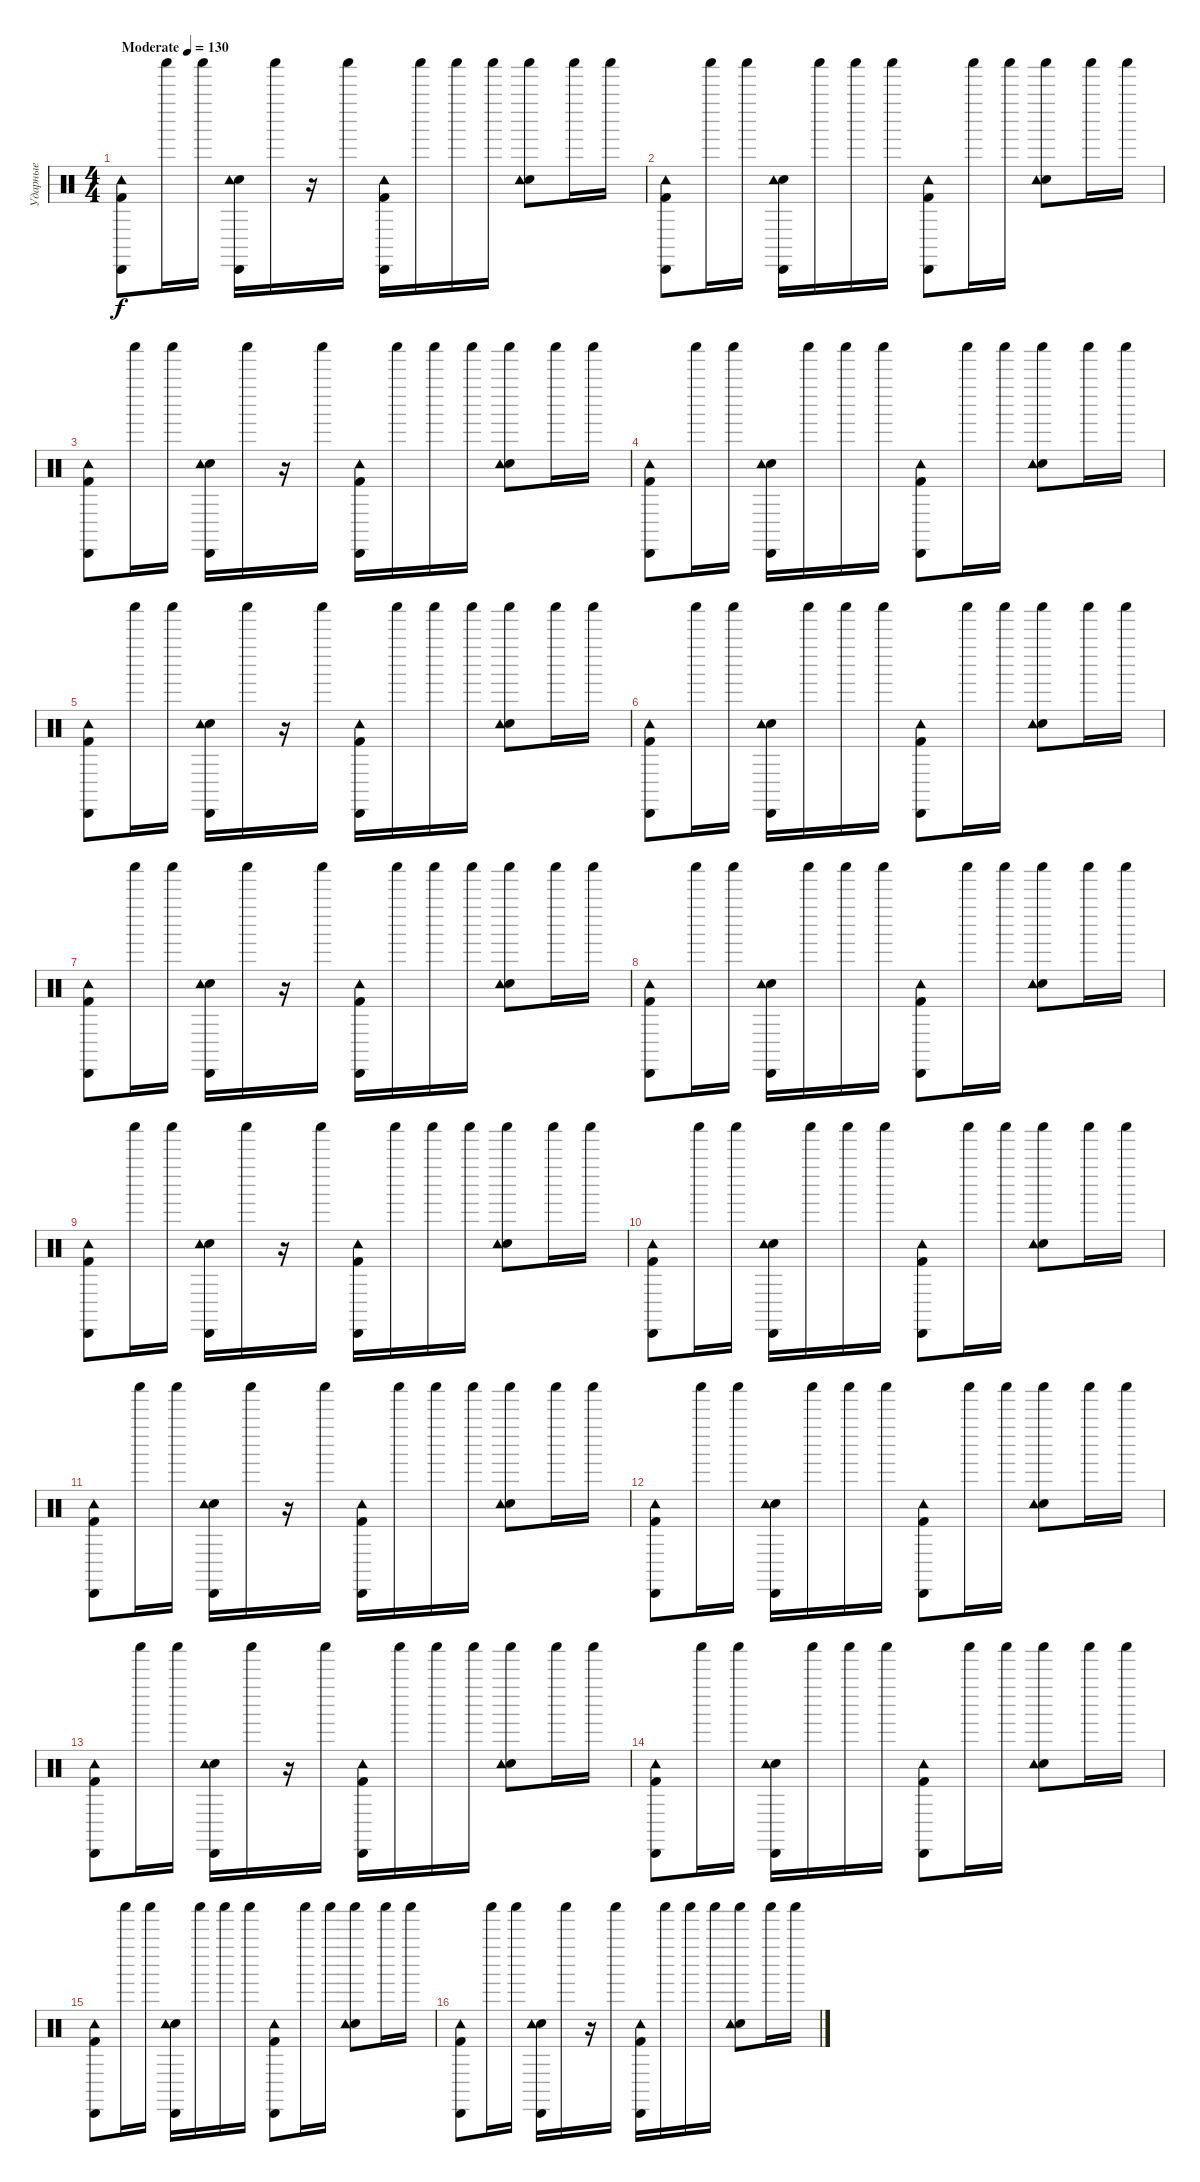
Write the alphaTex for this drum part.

\track ("Ударные" "Ударные") {instrument percussion}
\staff {score}
\articulation defaults
\ts (4 4)
\tempo (130 "Moderate")
\clef neutral
\ks c
("Kick (hit) 2" "Cabasa (hit)" "Tambourine (hit)").8{dy f} "Shaker (hit)".16 "Shaker (hit)".16 ("Electric Snare (hit)" "Cabasa (hit)" "Tambourine (hit)").16 "Shaker (hit)".16 r.16 "Shaker (hit)".16 ("Kick (hit) 2" "Cabasa (hit)" "Tambourine (hit)").16 "Shaker (hit)".16 "Shaker (hit)".16 "Shaker (hit)".16 ("Electric Snare (hit)" "Shaker (hit)" "Tambourine (hit)").8 "Shaker (hit)".16 "Shaker (hit)".16 |
("Kick (hit) 2" "Cabasa (hit)" "Tambourine (hit)").8 "Shaker (hit)".16 "Shaker (hit)".16 ("Electric Snare (hit)" "Cabasa (hit)" "Tambourine (hit)").16 "Shaker (hit)".16 "Shaker (hit)".16 "Shaker (hit)".16 ("Kick (hit) 2" "Cabasa (hit)" "Tambourine (hit)").8 "Shaker (hit)".16 "Shaker (hit)".16 ("Electric Snare (hit)" "Shaker (hit)" "Tambourine (hit)").8 "Shaker (hit)".16 "Shaker (hit)".16 |
("Kick (hit) 2" "Cabasa (hit)" "Tambourine (hit)").8 "Shaker (hit)".16 "Shaker (hit)".16 ("Electric Snare (hit)" "Cabasa (hit)" "Tambourine (hit)").16 "Shaker (hit)".16 r.16 "Shaker (hit)".16 ("Kick (hit) 2" "Cabasa (hit)" "Tambourine (hit)").16 "Shaker (hit)".16 "Shaker (hit)".16 "Shaker (hit)".16 ("Electric Snare (hit)" "Shaker (hit)" "Tambourine (hit)").8 "Shaker (hit)".16 "Shaker (hit)".16 |
("Kick (hit) 2" "Cabasa (hit)" "Tambourine (hit)").8 "Shaker (hit)".16 "Shaker (hit)".16 ("Electric Snare (hit)" "Cabasa (hit)" "Tambourine (hit)").16 "Shaker (hit)".16 "Shaker (hit)".16 "Shaker (hit)".16 ("Kick (hit) 2" "Cabasa (hit)" "Tambourine (hit)").8 "Shaker (hit)".16 "Shaker (hit)".16 ("Electric Snare (hit)" "Shaker (hit)" "Tambourine (hit)").8 "Shaker (hit)".16 "Shaker (hit)".16 |
("Kick (hit) 2" "Cabasa (hit)" "Tambourine (hit)").8 "Shaker (hit)".16 "Shaker (hit)".16 ("Electric Snare (hit)" "Cabasa (hit)" "Tambourine (hit)").16 "Shaker (hit)".16 r.16 "Shaker (hit)".16 ("Kick (hit) 2" "Cabasa (hit)" "Tambourine (hit)").16 "Shaker (hit)".16 "Shaker (hit)".16 "Shaker (hit)".16 ("Electric Snare (hit)" "Shaker (hit)" "Tambourine (hit)").8 "Shaker (hit)".16 "Shaker (hit)".16 |
("Kick (hit) 2" "Cabasa (hit)" "Tambourine (hit)").8 "Shaker (hit)".16 "Shaker (hit)".16 ("Electric Snare (hit)" "Cabasa (hit)" "Tambourine (hit)").16 "Shaker (hit)".16 "Shaker (hit)".16 "Shaker (hit)".16 ("Kick (hit) 2" "Cabasa (hit)" "Tambourine (hit)").8 "Shaker (hit)".16 "Shaker (hit)".16 ("Electric Snare (hit)" "Shaker (hit)" "Tambourine (hit)").8 "Shaker (hit)".16 "Shaker (hit)".16 |
("Kick (hit) 2" "Cabasa (hit)" "Tambourine (hit)").8 "Shaker (hit)".16 "Shaker (hit)".16 ("Electric Snare (hit)" "Cabasa (hit)" "Tambourine (hit)").16 "Shaker (hit)".16 r.16 "Shaker (hit)".16 ("Kick (hit) 2" "Cabasa (hit)" "Tambourine (hit)").16 "Shaker (hit)".16 "Shaker (hit)".16 "Shaker (hit)".16 ("Electric Snare (hit)" "Shaker (hit)" "Tambourine (hit)").8 "Shaker (hit)".16 "Shaker (hit)".16 |
("Kick (hit) 2" "Cabasa (hit)" "Tambourine (hit)").8 "Shaker (hit)".16 "Shaker (hit)".16 ("Electric Snare (hit)" "Cabasa (hit)" "Tambourine (hit)").16 "Shaker (hit)".16 "Shaker (hit)".16 "Shaker (hit)".16 ("Kick (hit) 2" "Cabasa (hit)" "Tambourine (hit)").8 "Shaker (hit)".16 "Shaker (hit)".16 ("Electric Snare (hit)" "Shaker (hit)" "Tambourine (hit)").8 "Shaker (hit)".16 "Shaker (hit)".16 |
("Kick (hit) 2" "Cabasa (hit)" "Tambourine (hit)").8 "Shaker (hit)".16 "Shaker (hit)".16 ("Electric Snare (hit)" "Cabasa (hit)" "Tambourine (hit)").16 "Shaker (hit)".16 r.16 "Shaker (hit)".16 ("Kick (hit) 2" "Cabasa (hit)" "Tambourine (hit)").16 "Shaker (hit)".16 "Shaker (hit)".16 "Shaker (hit)".16 ("Electric Snare (hit)" "Shaker (hit)" "Tambourine (hit)").8 "Shaker (hit)".16 "Shaker (hit)".16 |
("Kick (hit) 2" "Cabasa (hit)" "Tambourine (hit)").8 "Shaker (hit)".16 "Shaker (hit)".16 ("Electric Snare (hit)" "Cabasa (hit)" "Tambourine (hit)").16 "Shaker (hit)".16 "Shaker (hit)".16 "Shaker (hit)".16 ("Kick (hit) 2" "Cabasa (hit)" "Tambourine (hit)").8 "Shaker (hit)".16 "Shaker (hit)".16 ("Electric Snare (hit)" "Shaker (hit)" "Tambourine (hit)").8 "Shaker (hit)".16 "Shaker (hit)".16 |
("Kick (hit) 2" "Cabasa (hit)" "Tambourine (hit)").8 "Shaker (hit)".16 "Shaker (hit)".16 ("Electric Snare (hit)" "Cabasa (hit)" "Tambourine (hit)").16 "Shaker (hit)".16 r.16 "Shaker (hit)".16 ("Kick (hit) 2" "Cabasa (hit)" "Tambourine (hit)").16 "Shaker (hit)".16 "Shaker (hit)".16 "Shaker (hit)".16 ("Electric Snare (hit)" "Shaker (hit)" "Tambourine (hit)").8 "Shaker (hit)".16 "Shaker (hit)".16 |
("Kick (hit) 2" "Cabasa (hit)" "Tambourine (hit)").8 "Shaker (hit)".16 "Shaker (hit)".16 ("Electric Snare (hit)" "Cabasa (hit)" "Tambourine (hit)").16 "Shaker (hit)".16 "Shaker (hit)".16 "Shaker (hit)".16 ("Kick (hit) 2" "Cabasa (hit)" "Tambourine (hit)").8 "Shaker (hit)".16 "Shaker (hit)".16 ("Electric Snare (hit)" "Shaker (hit)" "Tambourine (hit)").8 "Shaker (hit)".16 "Shaker (hit)".16 |
("Kick (hit) 2" "Cabasa (hit)" "Tambourine (hit)").8 "Shaker (hit)".16 "Shaker (hit)".16 ("Electric Snare (hit)" "Cabasa (hit)" "Tambourine (hit)").16 "Shaker (hit)".16 r.16 "Shaker (hit)".16 ("Kick (hit) 2" "Cabasa (hit)" "Tambourine (hit)").16 "Shaker (hit)".16 "Shaker (hit)".16 "Shaker (hit)".16 ("Electric Snare (hit)" "Shaker (hit)" "Tambourine (hit)").8 "Shaker (hit)".16 "Shaker (hit)".16 |
("Kick (hit) 2" "Cabasa (hit)" "Tambourine (hit)").8 "Shaker (hit)".16 "Shaker (hit)".16 ("Electric Snare (hit)" "Cabasa (hit)" "Tambourine (hit)").16 "Shaker (hit)".16 "Shaker (hit)".16 "Shaker (hit)".16 ("Kick (hit) 2" "Cabasa (hit)" "Tambourine (hit)").8 "Shaker (hit)".16 "Shaker (hit)".16 ("Electric Snare (hit)" "Shaker (hit)" "Tambourine (hit)").8 "Shaker (hit)".16 "Shaker (hit)".16 |
("Kick (hit) 2" "Cabasa (hit)" "Tambourine (hit)").8 "Shaker (hit)".16 "Shaker (hit)".16 ("Electric Snare (hit)" "Cabasa (hit)" "Tambourine (hit)").16 "Shaker (hit)".16 "Shaker (hit)".16 "Shaker (hit)".16 ("Kick (hit) 2" "Cabasa (hit)" "Tambourine (hit)").8 "Shaker (hit)".16 "Shaker (hit)".16 ("Electric Snare (hit)" "Shaker (hit)" "Tambourine (hit)").8 "Shaker (hit)".16 "Shaker (hit)".16 |
("Kick (hit) 2" "Cabasa (hit)" "Tambourine (hit)").8 "Shaker (hit)".16 "Shaker (hit)".16 ("Electric Snare (hit)" "Cabasa (hit)" "Tambourine (hit)").16 "Shaker (hit)".16 r.16 "Shaker (hit)".16 ("Kick (hit) 2" "Cabasa (hit)" "Tambourine (hit)").16 "Shaker (hit)".16 "Shaker (hit)".16 "Shaker (hit)".16 ("Electric Snare (hit)" "Shaker (hit)" "Tambourine (hit)").8 "Shaker (hit)".16 "Shaker (hit)".16
